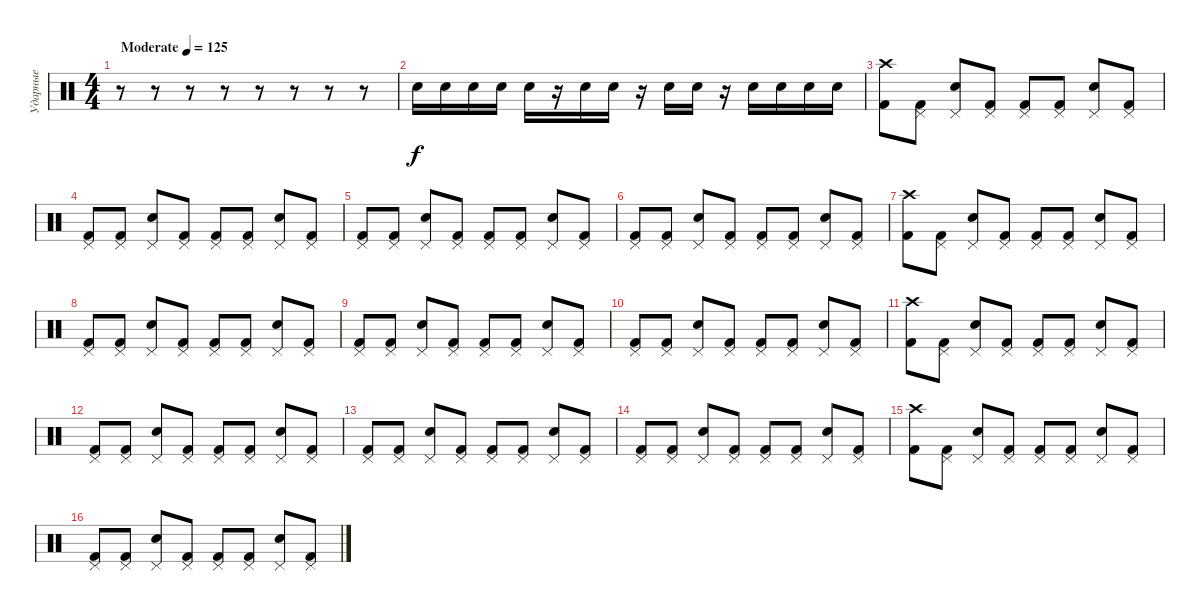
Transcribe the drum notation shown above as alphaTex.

\track ("Ударные" "Ударные") {instrument percussion}
\staff {score}
\articulation defaults
\ts (4 4)
\tempo (125 "Moderate")
\clef neutral
\ks c
r.8{dy f} r.8 r.8 r.8 r.8 r.8 r.8 r.8 |
"Snare (hit) 2".16 "Snare (hit) 2".16 "Snare (hit) 2".16 "Snare (hit) 2".16 "Snare (hit) 2".16 r.16 "Snare (hit) 2".16 "Snare (hit) 2".16 r.16 "Snare (hit) 2".16 "Snare (hit) 2".16 r.16 "Snare (hit) 2".16 "Snare (hit) 2".16 "Snare (hit) 2".16 "Snare (hit) 2".16 |
("Crash high (hit)" "Kick (hit) 2").8 ("Pedal Hi-Hat (hit)" "Kick (hit) 2").8 ("Pedal Hi-Hat (hit)" "Snare (hit) 2").8 ("Pedal Hi-Hat (hit)" "Kick (hit) 2").8 ("Pedal Hi-Hat (hit)" "Kick (hit) 2").8 ("Pedal Hi-Hat (hit)" "Kick (hit) 2").8 ("Pedal Hi-Hat (hit)" "Snare (hit) 2").8 ("Pedal Hi-Hat (hit)" "Kick (hit) 2").8 |
("Pedal Hi-Hat (hit)" "Kick (hit) 2").8 ("Pedal Hi-Hat (hit)" "Kick (hit) 2").8 ("Pedal Hi-Hat (hit)" "Snare (hit) 2").8 ("Pedal Hi-Hat (hit)" "Kick (hit) 2").8 ("Pedal Hi-Hat (hit)" "Kick (hit) 2").8 ("Pedal Hi-Hat (hit)" "Kick (hit) 2").8 ("Pedal Hi-Hat (hit)" "Snare (hit) 2").8 ("Pedal Hi-Hat (hit)" "Kick (hit) 2").8 |
("Pedal Hi-Hat (hit)" "Kick (hit) 2").8 ("Pedal Hi-Hat (hit)" "Kick (hit) 2").8 ("Pedal Hi-Hat (hit)" "Snare (hit) 2").8 ("Pedal Hi-Hat (hit)" "Kick (hit) 2").8 ("Pedal Hi-Hat (hit)" "Kick (hit) 2").8 ("Pedal Hi-Hat (hit)" "Kick (hit) 2").8 ("Pedal Hi-Hat (hit)" "Snare (hit) 2").8 ("Pedal Hi-Hat (hit)" "Kick (hit) 2").8 |
("Pedal Hi-Hat (hit)" "Kick (hit) 2").8 ("Pedal Hi-Hat (hit)" "Kick (hit) 2").8 ("Pedal Hi-Hat (hit)" "Snare (hit) 2").8 ("Pedal Hi-Hat (hit)" "Kick (hit) 2").8 ("Pedal Hi-Hat (hit)" "Kick (hit) 2").8 ("Pedal Hi-Hat (hit)" "Kick (hit) 2").8 ("Pedal Hi-Hat (hit)" "Snare (hit) 2").8 ("Pedal Hi-Hat (hit)" "Kick (hit) 2").8 |
("Crash high (hit)" "Kick (hit) 2").8 ("Pedal Hi-Hat (hit)" "Kick (hit) 2").8 ("Pedal Hi-Hat (hit)" "Snare (hit) 2").8 ("Pedal Hi-Hat (hit)" "Kick (hit) 2").8 ("Pedal Hi-Hat (hit)" "Kick (hit) 2").8 ("Pedal Hi-Hat (hit)" "Kick (hit) 2").8 ("Pedal Hi-Hat (hit)" "Snare (hit) 2").8 ("Pedal Hi-Hat (hit)" "Kick (hit) 2").8 |
("Pedal Hi-Hat (hit)" "Kick (hit) 2").8 ("Pedal Hi-Hat (hit)" "Kick (hit) 2").8 ("Pedal Hi-Hat (hit)" "Snare (hit) 2").8 ("Pedal Hi-Hat (hit)" "Kick (hit) 2").8 ("Pedal Hi-Hat (hit)" "Kick (hit) 2").8 ("Pedal Hi-Hat (hit)" "Kick (hit) 2").8 ("Pedal Hi-Hat (hit)" "Snare (hit) 2").8 ("Pedal Hi-Hat (hit)" "Kick (hit) 2").8 |
("Pedal Hi-Hat (hit)" "Kick (hit) 2").8 ("Pedal Hi-Hat (hit)" "Kick (hit) 2").8 ("Pedal Hi-Hat (hit)" "Snare (hit) 2").8 ("Pedal Hi-Hat (hit)" "Kick (hit) 2").8 ("Pedal Hi-Hat (hit)" "Kick (hit) 2").8 ("Pedal Hi-Hat (hit)" "Kick (hit) 2").8 ("Pedal Hi-Hat (hit)" "Snare (hit) 2").8 ("Pedal Hi-Hat (hit)" "Kick (hit) 2").8 |
("Pedal Hi-Hat (hit)" "Kick (hit) 2").8 ("Pedal Hi-Hat (hit)" "Kick (hit) 2").8 ("Pedal Hi-Hat (hit)" "Snare (hit) 2").8 ("Pedal Hi-Hat (hit)" "Kick (hit) 2").8 ("Pedal Hi-Hat (hit)" "Kick (hit) 2").8 ("Pedal Hi-Hat (hit)" "Kick (hit) 2").8 ("Pedal Hi-Hat (hit)" "Snare (hit) 2").8 ("Pedal Hi-Hat (hit)" "Kick (hit) 2").8 |
("Crash high (hit)" "Kick (hit) 2").8 ("Pedal Hi-Hat (hit)" "Kick (hit) 2").8 ("Pedal Hi-Hat (hit)" "Snare (hit) 2").8 ("Pedal Hi-Hat (hit)" "Kick (hit) 2").8 ("Pedal Hi-Hat (hit)" "Kick (hit) 2").8 ("Pedal Hi-Hat (hit)" "Kick (hit) 2").8 ("Pedal Hi-Hat (hit)" "Snare (hit) 2").8 ("Pedal Hi-Hat (hit)" "Kick (hit) 2").8 |
("Pedal Hi-Hat (hit)" "Kick (hit) 2").8 ("Pedal Hi-Hat (hit)" "Kick (hit) 2").8 ("Pedal Hi-Hat (hit)" "Snare (hit) 2").8 ("Pedal Hi-Hat (hit)" "Kick (hit) 2").8 ("Pedal Hi-Hat (hit)" "Kick (hit) 2").8 ("Pedal Hi-Hat (hit)" "Kick (hit) 2").8 ("Pedal Hi-Hat (hit)" "Snare (hit) 2").8 ("Pedal Hi-Hat (hit)" "Kick (hit) 2").8 |
("Pedal Hi-Hat (hit)" "Kick (hit) 2").8 ("Pedal Hi-Hat (hit)" "Kick (hit) 2").8 ("Pedal Hi-Hat (hit)" "Snare (hit) 2").8 ("Pedal Hi-Hat (hit)" "Kick (hit) 2").8 ("Pedal Hi-Hat (hit)" "Kick (hit) 2").8 ("Pedal Hi-Hat (hit)" "Kick (hit) 2").8 ("Pedal Hi-Hat (hit)" "Snare (hit) 2").8 ("Pedal Hi-Hat (hit)" "Kick (hit) 2").8 |
("Pedal Hi-Hat (hit)" "Kick (hit) 2").8 ("Pedal Hi-Hat (hit)" "Kick (hit) 2").8 ("Pedal Hi-Hat (hit)" "Snare (hit) 2").8 ("Pedal Hi-Hat (hit)" "Kick (hit) 2").8 ("Pedal Hi-Hat (hit)" "Kick (hit) 2").8 ("Pedal Hi-Hat (hit)" "Kick (hit) 2").8 ("Pedal Hi-Hat (hit)" "Snare (hit) 2").8 ("Pedal Hi-Hat (hit)" "Kick (hit) 2").8 |
("Crash high (hit)" "Kick (hit) 2").8 ("Pedal Hi-Hat (hit)" "Kick (hit) 2").8 ("Pedal Hi-Hat (hit)" "Snare (hit) 2").8 ("Pedal Hi-Hat (hit)" "Kick (hit) 2").8 ("Pedal Hi-Hat (hit)" "Kick (hit) 2").8 ("Pedal Hi-Hat (hit)" "Kick (hit) 2").8 ("Pedal Hi-Hat (hit)" "Snare (hit) 2").8 ("Pedal Hi-Hat (hit)" "Kick (hit) 2").8 |
("Pedal Hi-Hat (hit)" "Kick (hit) 2").8 ("Pedal Hi-Hat (hit)" "Kick (hit) 2").8 ("Pedal Hi-Hat (hit)" "Snare (hit) 2").8 ("Pedal Hi-Hat (hit)" "Kick (hit) 2").8 ("Pedal Hi-Hat (hit)" "Kick (hit) 2").8 ("Pedal Hi-Hat (hit)" "Kick (hit) 2").8 ("Pedal Hi-Hat (hit)" "Snare (hit) 2").8 ("Pedal Hi-Hat (hit)" "Kick (hit) 2").8
